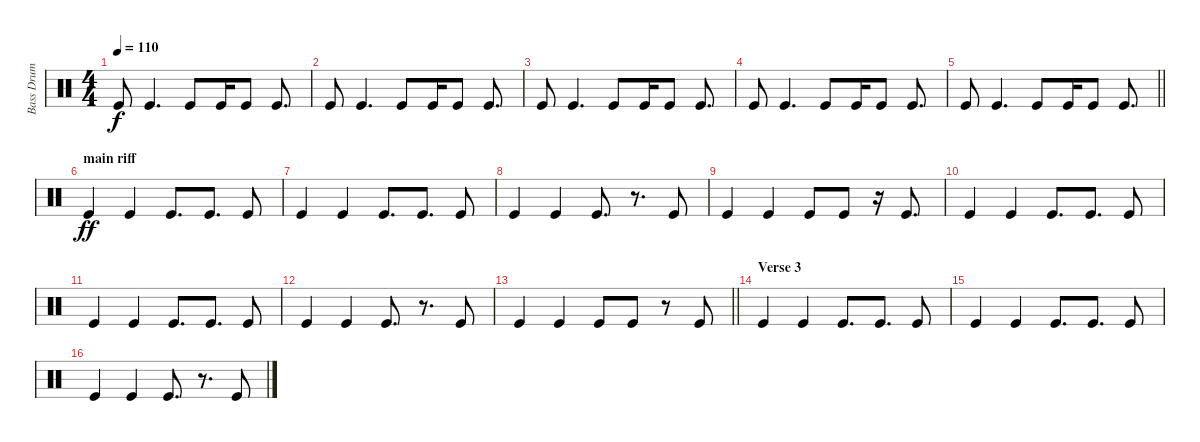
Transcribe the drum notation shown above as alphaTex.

\track ("Bass Drum" "Bass Drum") {instrument percussion}
\staff {score}
\articulation defaults
\ts (4 4)
\tempo 110
\clef neutral
\ks c "Kick (hit)".8{dy f} "Kick (hit)".4{d} "Kick (hit)".8 "Kick (hit)".16 "Kick (hit)".8 "Kick (hit)".8{d}
|
"Kick (hit)".8 "Kick (hit)".4{d} "Kick (hit)".8 "Kick (hit)".16 "Kick (hit)".8 "Kick (hit)".8{d} |
"Kick (hit)".8 "Kick (hit)".4{d} "Kick (hit)".8 "Kick (hit)".16 "Kick (hit)".8 "Kick (hit)".8{d} |
"Kick (hit)".8 "Kick (hit)".4{d} "Kick (hit)".8 "Kick (hit)".16 "Kick (hit)".8 "Kick (hit)".8{d} |
\barLineRight lightlight "Kick (hit)".8 "Kick (hit)".4{d} "Kick (hit)".8 "Kick (hit)".16 "Kick (hit)".8 "Kick (hit)".8{d}
|
\section ("" "main riff")
"Kick (hit)".4{dy ff} "Kick (hit)".4 "Kick (hit)".8{d} "Kick (hit)".8{d} "Kick (hit)".8 |
"Kick (hit)".4 "Kick (hit)".4 "Kick (hit)".8{d} "Kick (hit)".8{d} "Kick (hit)".8 |
"Kick (hit)".4 "Kick (hit)".4 "Kick (hit)".8{d} r.8{d} "Kick (hit)".8 |
"Kick (hit)".4 "Kick (hit)".4 "Kick (hit)".8 "Kick (hit)".8 r.16 "Kick (hit)".8{d} |
"Kick (hit)".4 "Kick (hit)".4 "Kick (hit)".8{d} "Kick (hit)".8{d} "Kick (hit)".8 |
"Kick (hit)".4 "Kick (hit)".4 "Kick (hit)".8{d} "Kick (hit)".8{d} "Kick (hit)".8 |
"Kick (hit)".4 "Kick (hit)".4 "Kick (hit)".8{d} r.8{d} "Kick (hit)".8 |
\barLineRight lightlight "Kick (hit)".4 "Kick (hit)".4 "Kick (hit)".8 "Kick (hit)".8
r.8 "Kick (hit)".8 |
\section ("" "Verse 3")
"Kick (hit)".4 "Kick (hit)".4 "Kick (hit)".8{d} "Kick (hit)".8{d} "Kick (hit)".8 |
"Kick (hit)".4 "Kick (hit)".4 "Kick (hit)".8{d} "Kick (hit)".8{d} "Kick (hit)".8 |
"Kick (hit)".4 "Kick (hit)".4 "Kick (hit)".8{d} r.8{d} "Kick (hit)".8
